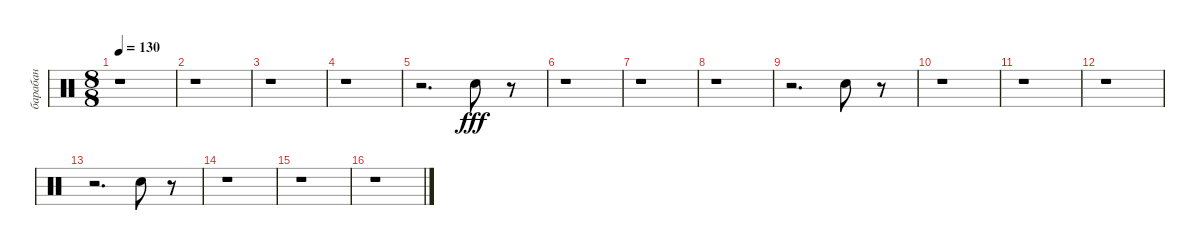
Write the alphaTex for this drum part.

\track ("барабан" "барабан") {instrument percussion}
\staff {score}
\articulation defaults
\ts (8 8)
\tempo 130
\clef neutral
\ks c
r.1{dy fff} |
r.1 |
r.1 |
r.1 |
r.2{d} "Snare (hit) 2".8 r.8 |
r.1 |
r.1 |
r.1 |
r.2{d} "Snare (hit) 2".8 r.8 |
r.1 |
r.1 |
r.1 |
r.2{d} "Snare (hit) 2".8 r.8 |
r.1 |
r.1 |
r.1
